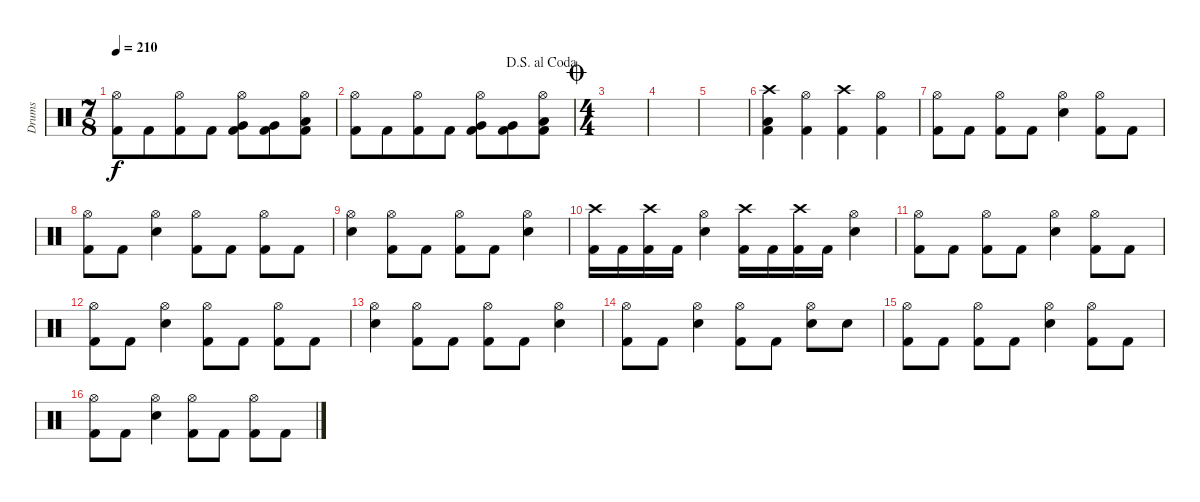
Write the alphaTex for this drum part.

\track ("Drums" "Drums") {instrument percussion}
\staff {score}
\articulation defaults
\ts (7 8)
\tempo 210
\clef neutral
\ks c
("Hi-Hat (open)" "Kick (hit) 2").8{dy f} "Kick (hit) 2".8 ("Hi-Hat (open)" "Kick (hit) 2").8 "Kick (hit) 2".8 ("Hi-Hat (open)" "Very Low Tom (hit)" "Kick (hit) 2").8 ("Very Low Tom (hit)" "Kick (hit) 2").8 ("Hi-Hat (open)" "Low Tom (hit)" "Kick (hit) 2").8 |
\jump dalsegnoalcoda
("Hi-Hat (open)" "Kick (hit) 2").8 "Kick (hit) 2".8 ("Hi-Hat (open)" "Kick (hit) 2").8 "Kick (hit) 2".8 ("Hi-Hat (open)" "Very Low Tom (hit)" "Kick (hit) 2").8 ("Very Low Tom (hit)" "Kick (hit) 2").8 ("Hi-Hat (open)" "Low Tom (hit)" "Kick (hit) 2").8 |
\ts (4 4)
\jump coda
|
|
|
("Crash high (hit)" "Low Tom (hit)" "Kick (hit) 2").4 ("Hi-Hat (open)" "Kick (hit) 2").4 ("Crash high (hit)" "Kick (hit) 2").4 ("Hi-Hat (open)" "Kick (hit) 2").4 |
("Hi-Hat (open)" "Kick (hit) 2").8 "Kick (hit) 2".8 ("Hi-Hat (open)" "Kick (hit) 2").8 "Kick (hit) 2".8 ("Hi-Hat (open)" "Electric Snare (hit)").4 ("Hi-Hat (open)" "Kick (hit) 2").8 "Kick (hit) 2".8 |
("Hi-Hat (open)" "Kick (hit) 2").8 "Kick (hit) 2".8 ("Hi-Hat (open)" "Electric Snare (hit)").4 ("Hi-Hat (open)" "Kick (hit) 2").8 "Kick (hit) 2".8 ("Hi-Hat (open)" "Kick (hit) 2").8 "Kick (hit) 2".8 |
("Hi-Hat (open)" "Electric Snare (hit)").4 ("Hi-Hat (open)" "Kick (hit) 2").8 "Kick (hit) 2".8 ("Hi-Hat (open)" "Kick (hit) 2").8 "Kick (hit) 2".8 ("Hi-Hat (open)" "Electric Snare (hit)").4 |
("Crash high (hit)" "Kick (hit) 2").16 "Kick (hit) 2".16 ("Crash high (hit)" "Kick (hit) 2").16 "Kick (hit) 2".16 ("Hi-Hat (open)" "Electric Snare (hit)").4 ("Crash high (hit)" "Kick (hit) 2").16 "Kick (hit) 2".16 ("Crash high (hit)" "Kick (hit) 2").16 "Kick (hit) 2".16 ("Hi-Hat (open)" "Electric Snare (hit)").4 |
("Hi-Hat (open)" "Kick (hit) 2").8 "Kick (hit) 2".8 ("Hi-Hat (open)" "Kick (hit) 2").8 "Kick (hit) 2".8 ("Hi-Hat (open)" "Electric Snare (hit)").4 ("Hi-Hat (open)" "Kick (hit) 2").8 "Kick (hit) 2".8 |
("Hi-Hat (open)" "Kick (hit) 2").8 "Kick (hit) 2".8 ("Hi-Hat (open)" "Electric Snare (hit)").4 ("Hi-Hat (open)" "Kick (hit) 2").8 "Kick (hit) 2".8 ("Hi-Hat (open)" "Kick (hit) 2").8 "Kick (hit) 2".8 |
("Hi-Hat (open)" "Electric Snare (hit)").4 ("Hi-Hat (open)" "Kick (hit) 2").8 "Kick (hit) 2".8 ("Hi-Hat (open)" "Kick (hit) 2").8 "Kick (hit) 2".8 ("Hi-Hat (open)" "Electric Snare (hit)").4 |
("Hi-Hat (open)" "Kick (hit) 2").8 "Kick (hit) 2".8 ("Hi-Hat (open)" "Electric Snare (hit)").4 ("Hi-Hat (open)" "Kick (hit) 2").8 "Kick (hit) 2".8 ("Hi-Hat (open)" "Electric Snare (hit)").8 "Electric Snare (hit)".8 |
("Hi-Hat (open)" "Kick (hit) 2").8 "Kick (hit) 2".8 ("Hi-Hat (open)" "Kick (hit) 2").8 "Kick (hit) 2".8 ("Hi-Hat (open)" "Electric Snare (hit)").4 ("Hi-Hat (open)" "Kick (hit) 2").8 "Kick (hit) 2".8 |
("Hi-Hat (open)" "Kick (hit) 2").8 "Kick (hit) 2".8 ("Hi-Hat (open)" "Electric Snare (hit)").4 ("Hi-Hat (open)" "Kick (hit) 2").8 "Kick (hit) 2".8 ("Hi-Hat (open)" "Kick (hit) 2").8 "Kick (hit) 2".8
